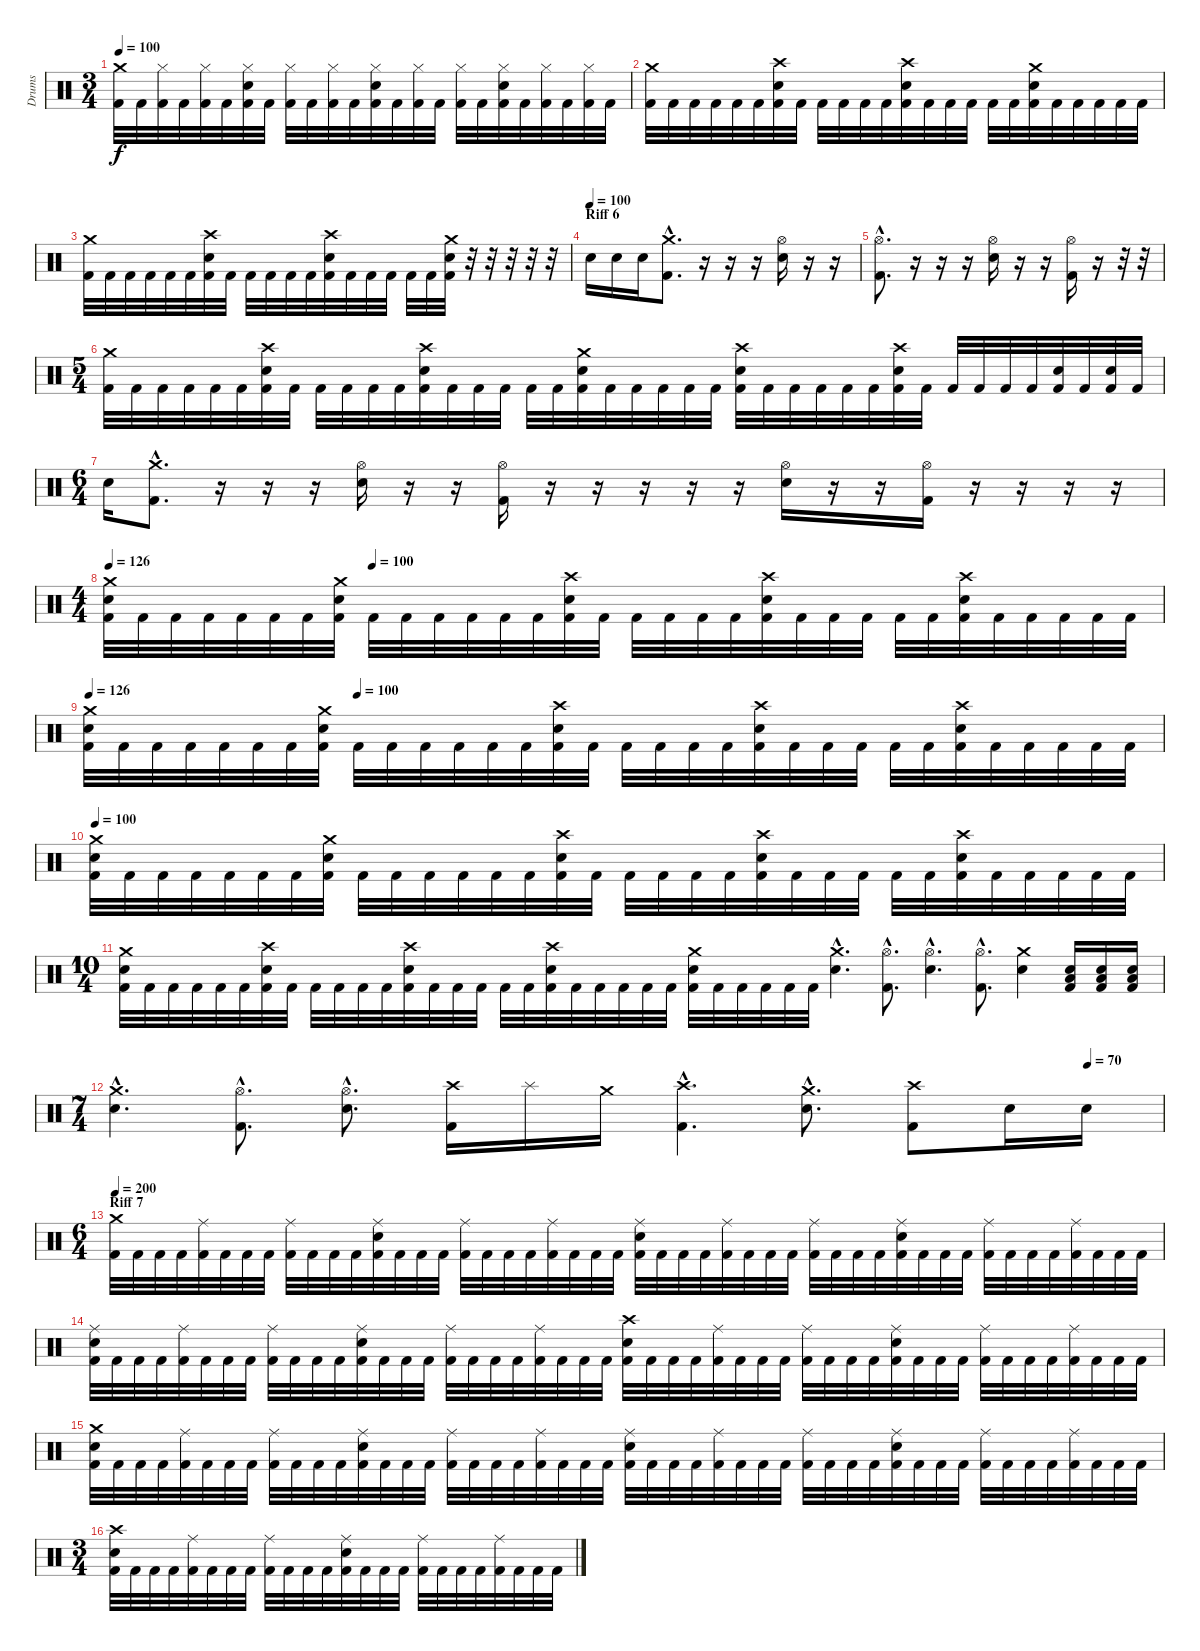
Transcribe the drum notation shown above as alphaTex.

\track ("Drums" "Drums") {instrument percussion}
\staff {score}
\articulation defaults
\ts (3 4)
\tempo 100
\clef neutral
\ks c
("Crash medium (hit)" "Kick (hit) 2").32{dy f} "Kick (hit) 2".32 ("Hi-Hat (closed)" "Kick (hit) 2").32 "Kick (hit) 2".32 ("Hi-Hat (closed)" "Kick (hit) 2").32 "Kick (hit) 2".32 ("Hi-Hat (closed)" "Electric Snare (hit)" "Kick (hit) 2").32 "Kick (hit) 2".32 ("Hi-Hat (closed)" "Kick (hit) 2").32 "Kick (hit) 2".32 ("Hi-Hat (closed)" "Kick (hit) 2").32 "Kick (hit) 2".32 ("Hi-Hat (closed)" "Electric Snare (hit)" "Kick (hit) 2").32 "Kick (hit) 2".32 ("Hi-Hat (closed)" "Kick (hit) 2").32 "Kick (hit) 2".32 ("Hi-Hat (closed)" "Kick (hit) 2").32 "Kick (hit) 2".32 ("Hi-Hat (closed)" "Electric Snare (hit)" "Kick (hit) 2").32 "Kick (hit) 2".32 ("Hi-Hat (closed)" "Kick (hit) 2").32 "Kick (hit) 2".32 ("Hi-Hat (closed)" "Kick (hit) 2").32 "Kick (hit) 2".32 |
("Crash medium (hit)" "Kick (hit) 2").32 "Kick (hit) 2".32 "Kick (hit) 2".32 "Kick (hit) 2".32 "Kick (hit) 2".32 "Kick (hit) 2".32 ("Crash high (hit)" "Electric Snare (hit)" "Kick (hit) 2").32 "Kick (hit) 2".32 "Kick (hit) 2".32 "Kick (hit) 2".32 "Kick (hit) 2".32 "Kick (hit) 2".32 ("Crash high (hit)" "Electric Snare (hit)" "Kick (hit) 2").32 "Kick (hit) 2".32 "Kick (hit) 2".32 "Kick (hit) 2".32 "Kick (hit) 2".32 "Kick (hit) 2".32 ("Crash medium (hit)" "Electric Snare (hit)" "Kick (hit) 2").32 "Kick (hit) 2".32 "Kick (hit) 2".32 "Kick (hit) 2".32 "Kick (hit) 2".32 "Kick (hit) 2".32 |
("Crash medium (hit)" "Kick (hit) 2").32 "Kick (hit) 2".32 "Kick (hit) 2".32 "Kick (hit) 2".32 "Kick (hit) 2".32 "Kick (hit) 2".32 ("Crash high (hit)" "Electric Snare (hit)" "Kick (hit) 2").32 "Kick (hit) 2".32 "Kick (hit) 2".32 "Kick (hit) 2".32 "Kick (hit) 2".32 "Kick (hit) 2".32 ("Crash high (hit)" "Electric Snare (hit)" "Kick (hit) 2").32 "Kick (hit) 2".32 "Kick (hit) 2".32 "Kick (hit) 2".32 "Kick (hit) 2".32 "Kick (hit) 2".32 ("Crash medium (hit)" "Electric Snare (hit)" "Kick (hit) 2").32 r.32 r.32 r.32 r.32 r.32 |
\section ("" "Riff 6")
\tempo (100)
"Electric Snare (hit)".16 "Electric Snare (hit)".16 "Electric Snare (hit)".16 ("Crash medium (hit)"{hac} "Kick (hit) 2"{hac}).8{d} r.16 r.16 r.16 ("Hi-Hat (open)" "Electric Snare (hit)").16 r.16 r.16 |
("Hi-Hat (open)"{hac} "Kick (hit) 2").8{d} r.16 r.16 r.16 ("Hi-Hat (open)" "Electric Snare (hit)").16 r.16 r.16 ("Hi-Hat (open)" "Kick (hit) 2").16 r.16 r.32 r.32 |
\ts (5 4)
("Crash medium (hit)" "Kick (hit) 2").32 "Kick (hit) 2".32 "Kick (hit) 2".32 "Kick (hit) 2".32 "Kick (hit) 2".32 "Kick (hit) 2".32 ("Crash high (hit)" "Electric Snare (hit)" "Kick (hit) 2").32 "Kick (hit) 2".32 "Kick (hit) 2".32 "Kick (hit) 2".32 "Kick (hit) 2".32 "Kick (hit) 2".32 ("Crash high (hit)" "Electric Snare (hit)" "Kick (hit) 2").32 "Kick (hit) 2".32 "Kick (hit) 2".32 "Kick (hit) 2".32 "Kick (hit) 2".32 "Kick (hit) 2".32 ("Crash medium (hit)" "Electric Snare (hit)" "Kick (hit) 2").32 "Kick (hit) 2".32 "Kick (hit) 2".32 "Kick (hit) 2".32 "Kick (hit) 2".32 "Kick (hit) 2".32 ("Crash high (hit)" "Electric Snare (hit)" "Kick (hit) 2").32 "Kick (hit) 2".32 "Kick (hit) 2".32 "Kick (hit) 2".32 "Kick (hit) 2".32 "Kick (hit) 2".32 ("Crash high (hit)" "Electric Snare (hit)" "Kick (hit) 2").32 "Kick (hit) 2".32 "Kick (hit) 2".32 "Kick (hit) 2".32 "Kick (hit) 2".32 "Kick (hit) 2".32 ("Electric Snare (hit)" "Kick (hit) 2").32 "Kick (hit) 2".32 ("Electric Snare (hit)" "Kick (hit) 2").32 "Kick (hit) 2".32 |
\ts (6 4)
"Electric Snare (hit)".16 ("Crash medium (hit)"{hac} "Kick (hit) 2"{hac}).8{d} r.16 r.16 r.16 ("Hi-Hat (open)" "Electric Snare (hit)").16 r.16 r.16 ("Hi-Hat (open)" "Kick (hit) 2").16 r.16 r.16 r.16 r.16 r.16 ("Hi-Hat (open)" "Electric Snare (hit)").16 r.16 r.16 ("Hi-Hat (open)" "Kick (hit) 2").16 r.16 r.16 r.16 r.16 |
\ts (4 4)
\tempo 126
\tempo (100 0.25)
("Crash medium (hit)" "Electric Snare (hit)" "Kick (hit) 2").32 "Kick (hit) 2".32 "Kick (hit) 2".32 "Kick (hit) 2".32 "Kick (hit) 2".32 "Kick (hit) 2".32 "Kick (hit) 2".32 ("Crash medium (hit)" "Electric Snare (hit)" "Kick (hit) 2").32 "Kick (hit) 2".32 "Kick (hit) 2".32 "Kick (hit) 2".32 "Kick (hit) 2".32 "Kick (hit) 2".32 "Kick (hit) 2".32 ("Crash high (hit)" "Electric Snare (hit)" "Kick (hit) 2").32 "Kick (hit) 2".32 "Kick (hit) 2".32 "Kick (hit) 2".32 "Kick (hit) 2".32 "Kick (hit) 2".32 ("Crash high (hit)" "Electric Snare (hit)" "Kick (hit) 2").32 "Kick (hit) 2".32 "Kick (hit) 2".32 "Kick (hit) 2".32 "Kick (hit) 2".32 "Kick (hit) 2".32 ("Crash high (hit)" "Electric Snare (hit)" "Kick (hit) 2").32 "Kick (hit) 2".32 "Kick (hit) 2".32 "Kick (hit) 2".32 "Kick (hit) 2".32 "Kick (hit) 2".32 |
\tempo 126
\tempo (100 0.25)
("Crash medium (hit)" "Electric Snare (hit)" "Kick (hit) 2").32 "Kick (hit) 2".32 "Kick (hit) 2".32 "Kick (hit) 2".32 "Kick (hit) 2".32 "Kick (hit) 2".32 "Kick (hit) 2".32 ("Crash medium (hit)" "Electric Snare (hit)" "Kick (hit) 2").32 "Kick (hit) 2".32 "Kick (hit) 2".32 "Kick (hit) 2".32 "Kick (hit) 2".32 "Kick (hit) 2".32 "Kick (hit) 2".32 ("Crash high (hit)" "Electric Snare (hit)" "Kick (hit) 2").32 "Kick (hit) 2".32 "Kick (hit) 2".32 "Kick (hit) 2".32 "Kick (hit) 2".32 "Kick (hit) 2".32 ("Crash high (hit)" "Electric Snare (hit)" "Kick (hit) 2").32 "Kick (hit) 2".32 "Kick (hit) 2".32 "Kick (hit) 2".32 "Kick (hit) 2".32 "Kick (hit) 2".32 ("Crash high (hit)" "Electric Snare (hit)" "Kick (hit) 2").32 "Kick (hit) 2".32 "Kick (hit) 2".32 "Kick (hit) 2".32 "Kick (hit) 2".32 "Kick (hit) 2".32 |
\tempo 100
("Crash medium (hit)" "Electric Snare (hit)" "Kick (hit) 2").32 "Kick (hit) 2".32 "Kick (hit) 2".32 "Kick (hit) 2".32 "Kick (hit) 2".32 "Kick (hit) 2".32 "Kick (hit) 2".32 ("Crash medium (hit)" "Electric Snare (hit)" "Kick (hit) 2").32 "Kick (hit) 2".32 "Kick (hit) 2".32 "Kick (hit) 2".32 "Kick (hit) 2".32 "Kick (hit) 2".32 "Kick (hit) 2".32 ("Crash high (hit)" "Electric Snare (hit)" "Kick (hit) 2").32 "Kick (hit) 2".32 "Kick (hit) 2".32 "Kick (hit) 2".32 "Kick (hit) 2".32 "Kick (hit) 2".32 ("Crash high (hit)" "Electric Snare (hit)" "Kick (hit) 2").32 "Kick (hit) 2".32 "Kick (hit) 2".32 "Kick (hit) 2".32 "Kick (hit) 2".32 "Kick (hit) 2".32 ("Crash high (hit)" "Electric Snare (hit)" "Kick (hit) 2").32 "Kick (hit) 2".32 "Kick (hit) 2".32 "Kick (hit) 2".32 "Kick (hit) 2".32 "Kick (hit) 2".32 |
\ts (10 4)
("Crash medium (hit)" "Electric Snare (hit)" "Kick (hit) 2").32 "Kick (hit) 2".32 "Kick (hit) 2".32 "Kick (hit) 2".32 "Kick (hit) 2".32 "Kick (hit) 2".32 ("Crash high (hit)" "Electric Snare (hit)" "Kick (hit) 2").32 "Kick (hit) 2".32 "Kick (hit) 2".32 "Kick (hit) 2".32 "Kick (hit) 2".32 "Kick (hit) 2".32 ("Crash high (hit)" "Electric Snare (hit)" "Kick (hit) 2").32 "Kick (hit) 2".32 "Kick (hit) 2".32 "Kick (hit) 2".32 "Kick (hit) 2".32 "Kick (hit) 2".32 ("Crash high (hit)" "Electric Snare (hit)" "Kick (hit) 2").32 "Kick (hit) 2".32 "Kick (hit) 2".32 "Kick (hit) 2".32 "Kick (hit) 2".32 "Kick (hit) 2".32 ("Crash medium (hit)" "Electric Snare (hit)" "Kick (hit) 2").32 "Kick (hit) 2".32 "Kick (hit) 2".32 "Kick (hit) 2".32 "Kick (hit) 2".32 "Kick (hit) 2".32 ("Crash medium (hit)"{hac} "Electric Snare (hit)"{hac}).4{d} ("Hi-Hat (open)"{hac} "Kick (hit) 2"{hac}).8{d} ("Hi-Hat (open)"{hac} "Electric Snare (hit)"{hac}).4{d} ("Hi-Hat (open)"{hac} "Kick (hit) 2"{hac}).8{d} ("Crash medium (hit)" "Electric Snare (hit)").4 ("Low Tom (hit)" "Electric Snare (hit)" "Kick (hit) 2").16 ("Low Tom (hit)" "Electric Snare (hit)" "Kick (hit) 2").16 ("Low Tom (hit)" "Electric Snare (hit)" "Kick (hit) 2").16 |
\ts (7 4)
\tempo (70 0.9285714285714286)
("Crash medium (hit)"{hac} "Electric Snare (hit)"{hac}).4{d} ("Hi-Hat (open)"{hac} "Kick (hit) 2"{hac}).8{d} ("Hi-Hat (open)"{hac} "Electric Snare (hit)"{hac}).8{d} ("Crash high (hit)" "Kick (hit) 2").16 "Splash (hit)".16 "Crash medium (hit)".16 ("Crash high (hit)"{hac} "Kick (hit) 2"{hac}).4{d} ("Crash medium (hit)"{hac} "Electric Snare (hit)"{hac}).8{d} ("Crash high (hit)" "Kick (hit) 2").8 "Electric Snare (hit)".16 "Electric Snare (hit)".16 |
\ts (6 4)
\section ("" "Riff 7")
\tempo 200
("Crash medium (hit)" "Kick (hit) 2").32 "Kick (hit) 2".32 "Kick (hit) 2".32 "Kick (hit) 2".32 ("Ride (middle)" "Kick (hit) 2").32 "Kick (hit) 2".32 "Kick (hit) 2".32 "Kick (hit) 2".32 ("Ride (middle)" "Kick (hit) 2").32 "Kick (hit) 2".32 "Kick (hit) 2".32 "Kick (hit) 2".32 ("Ride (middle)" "Electric Snare (hit)" "Kick (hit) 2").32 "Kick (hit) 2".32 "Kick (hit) 2".32 "Kick (hit) 2".32 ("Ride (middle)" "Kick (hit) 2").32 "Kick (hit) 2".32 "Kick (hit) 2".32 "Kick (hit) 2".32 ("Ride (middle)" "Kick (hit) 2").32 "Kick (hit) 2".32 "Kick (hit) 2".32 "Kick (hit) 2".32 ("Ride (middle)" "Electric Snare (hit)" "Kick (hit) 2").32 "Kick (hit) 2".32 "Kick (hit) 2".32 "Kick (hit) 2".32 ("Ride (middle)" "Kick (hit) 2").32 "Kick (hit) 2".32 "Kick (hit) 2".32 "Kick (hit) 2".32 ("Ride (middle)" "Kick (hit) 2").32 "Kick (hit) 2".32 "Kick (hit) 2".32 "Kick (hit) 2".32 ("Ride (middle)" "Electric Snare (hit)" "Kick (hit) 2").32 "Kick (hit) 2".32 "Kick (hit) 2".32 "Kick (hit) 2".32 ("Ride (middle)" "Kick (hit) 2").32 "Kick (hit) 2".32 "Kick (hit) 2".32 "Kick (hit) 2".32 ("Ride (middle)" "Kick (hit) 2").32 "Kick (hit) 2".32 "Kick (hit) 2".32 "Kick (hit) 2".32 |
("Ride (middle)" "Electric Snare (hit)" "Kick (hit) 2").32 "Kick (hit) 2".32 "Kick (hit) 2".32 "Kick (hit) 2".32 ("Ride (middle)" "Kick (hit) 2").32 "Kick (hit) 2".32 "Kick (hit) 2".32 "Kick (hit) 2".32 ("Ride (middle)" "Kick (hit) 2").32 "Kick (hit) 2".32 "Kick (hit) 2".32 "Kick (hit) 2".32 ("Ride (middle)" "Electric Snare (hit)" "Kick (hit) 2").32 "Kick (hit) 2".32 "Kick (hit) 2".32 "Kick (hit) 2".32 ("Ride (middle)" "Kick (hit) 2").32 "Kick (hit) 2".32 "Kick (hit) 2".32 "Kick (hit) 2".32 ("Ride (middle)" "Kick (hit) 2").32 "Kick (hit) 2".32 "Kick (hit) 2".32 "Kick (hit) 2".32 ("Crash high (hit)" "Electric Snare (hit)" "Kick (hit) 2").32 "Kick (hit) 2".32 "Kick (hit) 2".32 "Kick (hit) 2".32 ("Ride (middle)" "Kick (hit) 2").32 "Kick (hit) 2".32 "Kick (hit) 2".32 "Kick (hit) 2".32 ("Ride (middle)" "Kick (hit) 2").32 "Kick (hit) 2".32 "Kick (hit) 2".32 "Kick (hit) 2".32 ("Ride (middle)" "Electric Snare (hit)" "Kick (hit) 2").32 "Kick (hit) 2".32 "Kick (hit) 2".32 "Kick (hit) 2".32 ("Ride (middle)" "Kick (hit) 2").32 "Kick (hit) 2".32 "Kick (hit) 2".32 "Kick (hit) 2".32 ("Ride (middle)" "Kick (hit) 2").32 "Kick (hit) 2".32 "Kick (hit) 2".32 "Kick (hit) 2".32 |
("Crash medium (hit)" "Electric Snare (hit)" "Kick (hit) 2").32 "Kick (hit) 2".32 "Kick (hit) 2".32 "Kick (hit) 2".32 ("Ride (middle)" "Kick (hit) 2").32 "Kick (hit) 2".32 "Kick (hit) 2".32 "Kick (hit) 2".32 ("Ride (middle)" "Kick (hit) 2").32 "Kick (hit) 2".32 "Kick (hit) 2".32 "Kick (hit) 2".32 ("Ride (middle)" "Electric Snare (hit)" "Kick (hit) 2").32 "Kick (hit) 2".32 "Kick (hit) 2".32 "Kick (hit) 2".32 ("Ride (middle)" "Kick (hit) 2").32 "Kick (hit) 2".32 "Kick (hit) 2".32 "Kick (hit) 2".32 ("Ride (middle)" "Kick (hit) 2").32 "Kick (hit) 2".32 "Kick (hit) 2".32 "Kick (hit) 2".32 ("Ride (middle)" "Electric Snare (hit)" "Kick (hit) 2").32 "Kick (hit) 2".32 "Kick (hit) 2".32 "Kick (hit) 2".32 ("Ride (middle)" "Kick (hit) 2").32 "Kick (hit) 2".32 "Kick (hit) 2".32 "Kick (hit) 2".32 ("Ride (middle)" "Kick (hit) 2").32 "Kick (hit) 2".32 "Kick (hit) 2".32 "Kick (hit) 2".32 ("Ride (middle)" "Electric Snare (hit)" "Kick (hit) 2").32 "Kick (hit) 2".32 "Kick (hit) 2".32 "Kick (hit) 2".32 ("Ride (middle)" "Kick (hit) 2").32 "Kick (hit) 2".32 "Kick (hit) 2".32 "Kick (hit) 2".32 ("Ride (middle)" "Kick (hit) 2").32 "Kick (hit) 2".32 "Kick (hit) 2".32 "Kick (hit) 2".32 |
\ts (3 4)
("Crash high (hit)" "Electric Snare (hit)" "Kick (hit) 2").32 "Kick (hit) 2".32 "Kick (hit) 2".32 "Kick (hit) 2".32 ("Ride (middle)" "Kick (hit) 2").32 "Kick (hit) 2".32 "Kick (hit) 2".32 "Kick (hit) 2".32 ("Ride (middle)" "Kick (hit) 2").32 "Kick (hit) 2".32 "Kick (hit) 2".32 "Kick (hit) 2".32 ("Ride (middle)" "Electric Snare (hit)" "Kick (hit) 2").32 "Kick (hit) 2".32 "Kick (hit) 2".32 "Kick (hit) 2".32 ("Ride (middle)" "Kick (hit) 2").32 "Kick (hit) 2".32 "Kick (hit) 2".32 "Kick (hit) 2".32 ("Ride (middle)" "Kick (hit) 2").32 "Kick (hit) 2".32 "Kick (hit) 2".32 "Kick (hit) 2".32
